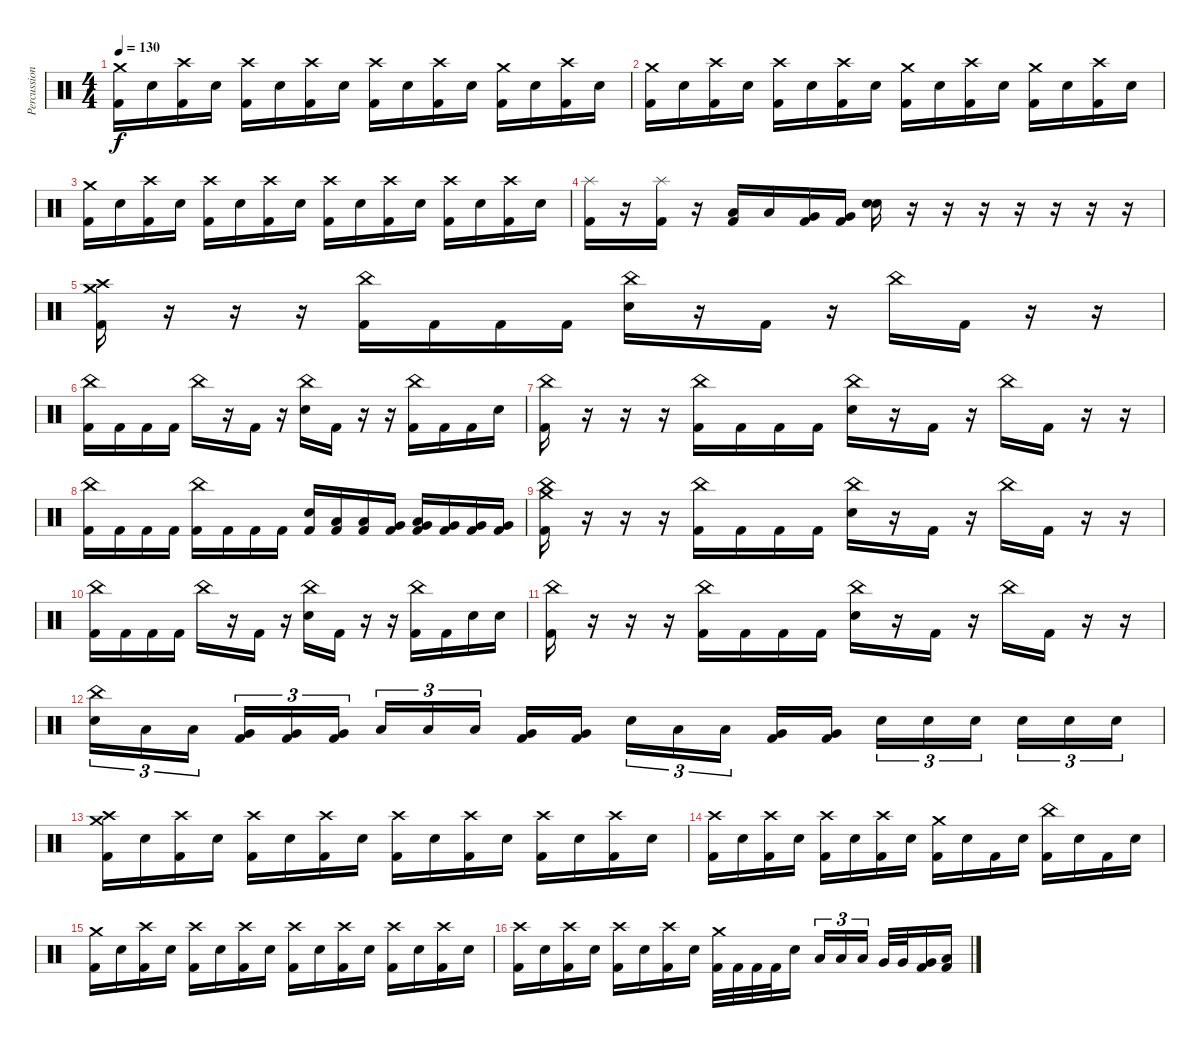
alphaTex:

\track ("Percussion" "Percussion") {instrument percussion}
\staff {score}
\articulation defaults
\ts (4 4)
\tempo 130
\clef neutral
\ks c
("Crash medium (hit)" "Kick (hit) 2").16{dy f} "Electric Snare (hit)".16 ("Crash high (hit)" "Kick (hit) 2").16 "Electric Snare (hit)".16 ("Crash high (hit)" "Kick (hit) 2").16 "Electric Snare (hit)".16 ("Crash high (hit)" "Kick (hit) 2").16 "Electric Snare (hit)".16 ("Crash high (hit)" "Kick (hit) 2").16 "Electric Snare (hit)".16 ("Crash high (hit)" "Kick (hit) 2").16 "Electric Snare (hit)".16 ("Crash medium (hit)" "Kick (hit) 2").16 "Electric Snare (hit)".16 ("Crash high (hit)" "Kick (hit) 2").16 "Electric Snare (hit)".16 |
("Crash medium (hit)" "Kick (hit) 2").16 "Electric Snare (hit)".16 ("Crash high (hit)" "Kick (hit) 2").16 "Electric Snare (hit)".16 ("Crash high (hit)" "Kick (hit) 2").16 "Electric Snare (hit)".16 ("Crash high (hit)" "Kick (hit) 2").16 "Electric Snare (hit)".16 ("Crash medium (hit)" "Kick (hit) 2").16 "Electric Snare (hit)".16 ("Crash high (hit)" "Kick (hit) 2").16 "Electric Snare (hit)".16 ("Crash medium (hit)" "Kick (hit) 2").16 "Electric Snare (hit)".16 ("Crash high (hit)" "Kick (hit) 2").16 "Electric Snare (hit)".16 |
("Crash medium (hit)" "Kick (hit) 2").16 "Electric Snare (hit)".16 ("Crash high (hit)" "Kick (hit) 2").16 "Electric Snare (hit)".16 ("Crash high (hit)" "Kick (hit) 2").16 "Electric Snare (hit)".16 ("Crash high (hit)" "Kick (hit) 2").16 "Electric Snare (hit)".16 ("Crash high (hit)" "Kick (hit) 2").16 "Electric Snare (hit)".16 ("Crash high (hit)" "Kick (hit) 2").16 "Electric Snare (hit)".16 ("Crash high (hit)" "Kick (hit) 2").16 "Electric Snare (hit)".16 ("Crash high (hit)" "Kick (hit) 2").16 "Electric Snare (hit)".16 |
("Splash (hit)" "Kick (hit) 2").16 r.16 ("Splash (hit)" "Kick (hit) 2").16 r.16 ("Low Tom (hit)" "Kick (hit) 2").16 "Low Tom (hit)".16 ("Very Low Tom (hit)" "Kick (hit) 2").16 ("Very Low Tom (hit)" "Kick (hit) 2").16 ("Electric Snare (hit)" "Snare (hit) 2").16 r.16 r.16 r.16 r.16 r.16 r.16 r.16 |
("Crash medium (hit)" "Crash high (hit)" "Kick (hit) 2").16 r.16 r.16 r.16 ("China (hit)" "Kick (hit) 2").16 "Kick (hit) 2".16 "Kick (hit) 2".16 "Kick (hit) 2".16 ("China (hit)" "Electric Snare (hit)").16 r.16 "Kick (hit) 2".16 r.16 "China (hit)".16 "Kick (hit) 2".16 r.16 r.16 |
("China (hit)" "Kick (hit) 2").16 "Kick (hit) 2".16 "Kick (hit) 2".16 "Kick (hit) 2".16 "China (hit)".16 r.16 "Kick (hit) 2".16 r.16 ("China (hit)" "Electric Snare (hit)").16 "Kick (hit) 2".16 r.16 r.16 ("China (hit)" "Kick (hit) 2").16 "Kick (hit) 2".16 "Kick (hit) 2".16 "Electric Snare (hit)".16 |
("China (hit)" "Kick (hit) 2").16 r.16 r.16 r.16 ("China (hit)" "Kick (hit) 2").16 "Kick (hit) 2".16 "Kick (hit) 2".16 "Kick (hit) 2".16 ("China (hit)" "Electric Snare (hit)").16 r.16 "Kick (hit) 2".16 r.16 "China (hit)".16 "Kick (hit) 2".16 r.16 r.16 |
("China (hit)" "Kick (hit) 2").16 "Kick (hit) 2".16 "Kick (hit) 2".16 "Kick (hit) 2".16 ("China (hit)" "Kick (hit) 2").16 "Kick (hit) 2".16 "Kick (hit) 2".16 "Kick (hit) 2".16 ("Electric Snare (hit)" "Kick (hit) 2").16 ("Low Tom (hit)" "Kick (hit) 2").16 ("Low Tom (hit)" "Kick (hit) 2").16 ("Very Low Tom (hit)" "Kick (hit) 2").16 ("Very Low Tom (hit)" "Low Floor Tom (hit)" "Kick (hit) 2").16 ("Very Low Tom (hit)" "Kick (hit) 2").16 ("Very Low Tom (hit)" "Kick (hit) 2").16 ("Very Low Tom (hit)" "Kick (hit) 2").16 |
("Crash medium (hit)" "China (hit)" "Kick (hit) 2").16 r.16 r.16 r.16 ("China (hit)" "Kick (hit) 2").16 "Kick (hit) 2".16 "Kick (hit) 2".16 "Kick (hit) 2".16 ("China (hit)" "Electric Snare (hit)").16 r.16 "Kick (hit) 2".16 r.16 "China (hit)".16 "Kick (hit) 2".16 r.16 r.16 |
("China (hit)" "Kick (hit) 2").16 "Kick (hit) 2".16 "Kick (hit) 2".16 "Kick (hit) 2".16 "China (hit)".16 r.16 "Kick (hit) 2".16 r.16 ("China (hit)" "Electric Snare (hit)").16 "Kick (hit) 2".16 r.16 r.16 ("China (hit)" "Kick (hit) 2").16 "Kick (hit) 2".16 "Electric Snare (hit)".16 "Electric Snare (hit)".16 |
("China (hit)" "Kick (hit) 2").16 r.16 r.16 r.16 ("China (hit)" "Kick (hit) 2").16 "Kick (hit) 2".16 "Kick (hit) 2".16 "Kick (hit) 2".16 ("China (hit)" "Electric Snare (hit)").16 r.16 "Kick (hit) 2".16 r.16 "China (hit)".16 "Kick (hit) 2".16 r.16 r.16 |
("China (hit)" "Electric Snare (hit)").16{tu (3 2)} "Low Tom (hit)".16{tu (3 2)} "Low Tom (hit)".16{tu (3 2) beam splitsecondary} ("Very Low Tom (hit)" "Kick (hit) 2").16{tu (3 2)} ("Very Low Tom (hit)" "Kick (hit) 2").16{tu (3 2)} ("Very Low Tom (hit)" "Kick (hit) 2").16{tu (3 2)} "Low Tom (hit)".16{tu (3 2)} "Low Tom (hit)".16{tu (3 2)} "Low Tom (hit)".16{tu (3 2) beam splitsecondary} ("Very Low Tom (hit)" "Kick (hit) 2").16 ("Very Low Tom (hit)" "Kick (hit) 2").16 "Electric Snare (hit)".16{tu (3 2)} "Low Tom (hit)".16{tu (3 2)} "Low Tom (hit)".16{tu (3 2) beam splitsecondary} ("Very Low Tom (hit)" "Kick (hit) 2").16 ("Very Low Tom (hit)" "Kick (hit) 2").16 "Electric Snare (hit)".16{tu (3 2)} "Electric Snare (hit)".16{tu (3 2)} "Electric Snare (hit)".16{tu (3 2) beam splitsecondary} "Electric Snare (hit)".16{tu (3 2)} "Electric Snare (hit)".16{tu (3 2)} "Electric Snare (hit)".16{tu (3 2)} |
("Crash medium (hit)" "Crash high (hit)" "Kick (hit) 2").16 "Electric Snare (hit)".16 ("Crash high (hit)" "Kick (hit) 2").16 "Electric Snare (hit)".16 ("Crash high (hit)" "Kick (hit) 2").16 "Electric Snare (hit)".16 ("Crash high (hit)" "Kick (hit) 2").16 "Electric Snare (hit)".16 ("Crash high (hit)" "Kick (hit) 2").16 "Electric Snare (hit)".16 ("Crash high (hit)" "Kick (hit) 2").16 "Electric Snare (hit)".16 ("Crash high (hit)" "Kick (hit) 2").16 "Electric Snare (hit)".16 ("Crash high (hit)" "Kick (hit) 2").16 "Electric Snare (hit)".16 |
("Crash high (hit)" "Kick (hit) 2").16 "Electric Snare (hit)".16 ("Crash high (hit)" "Kick (hit) 2").16 "Electric Snare (hit)".16 ("Crash high (hit)" "Kick (hit) 2").16 "Electric Snare (hit)".16 ("Crash high (hit)" "Kick (hit) 2").16 "Electric Snare (hit)".16 ("Crash medium (hit)" "Kick (hit) 2").16 "Electric Snare (hit)".16 "Kick (hit) 2".16 "Electric Snare (hit)".16 ("China (hit)" "Kick (hit) 2").16 "Electric Snare (hit)".16 "Kick (hit) 2".16 "Electric Snare (hit)".16 |
("Crash medium (hit)" "Kick (hit) 2").16 "Electric Snare (hit)".16 ("Crash high (hit)" "Kick (hit) 2").16 "Electric Snare (hit)".16 ("Crash high (hit)" "Kick (hit) 2").16 "Electric Snare (hit)".16 ("Crash high (hit)" "Kick (hit) 2").16 "Electric Snare (hit)".16 ("Crash high (hit)" "Kick (hit) 2").16 "Electric Snare (hit)".16 ("Crash high (hit)" "Kick (hit) 2").16 "Electric Snare (hit)".16 ("Crash high (hit)" "Kick (hit) 2").16 "Electric Snare (hit)".16 ("Crash high (hit)" "Kick (hit) 2").16 "Electric Snare (hit)".16 |
("Crash high (hit)" "Kick (hit) 2").16 "Electric Snare (hit)".16 ("Crash high (hit)" "Kick (hit) 2").16 "Electric Snare (hit)".16 ("Crash high (hit)" "Kick (hit) 2").16 "Electric Snare (hit)".16 ("Crash high (hit)" "Kick (hit) 2").16 "Electric Snare (hit)".16 ("Crash medium (hit)" "Kick (hit) 2").32 "Kick (hit) 2".32 "Kick (hit) 2".32 "Kick (hit) 2".32 "Electric Snare (hit)".16{beam splitsecondary} "Low Tom (hit)".16{tu (3 2)} "Low Tom (hit)".16{tu (3 2)} "Low Tom (hit)".16{tu (3 2) beam splitsecondary} "Very Low Tom (hit)".32 "Very Low Tom (hit)".32 ("Very Low Tom (hit)" "Kick (hit) 2").16 ("Low Floor Tom (hit)" "Kick (hit) 2").16
